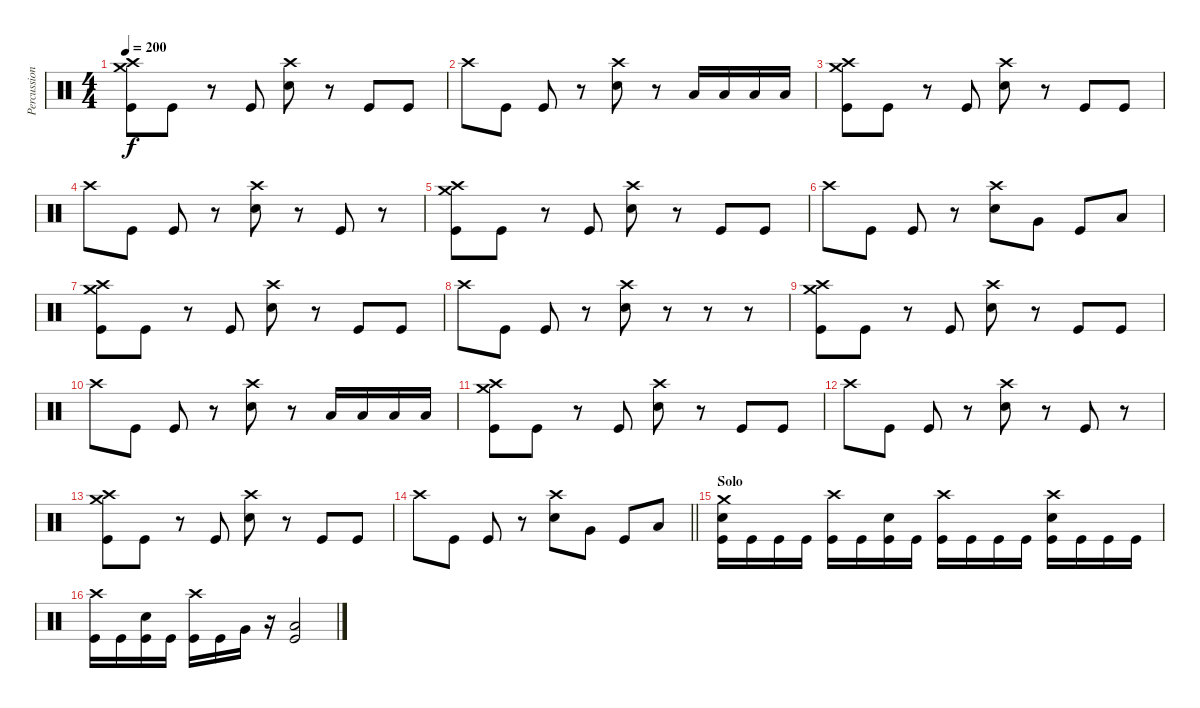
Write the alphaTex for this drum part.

\track ("Percussion" "Percussion") {instrument percussion}
\staff {score}
\articulation defaults
\ts (4 4)
\tempo 200
\clef neutral
\ks c
("Crash high (hit)" "Crash medium (hit)" "Kick (hit)").8{dy f} "Kick (hit)".8 r.8 "Kick (hit)".8 ("Crash high (hit)" "Snare (hit) 2").8 r.8 "Kick (hit)".8 "Kick (hit)".8 |
"Crash high (hit)".8 "Kick (hit)".8 "Kick (hit)".8 r.8 ("Crash high (hit)" "Snare (hit) 2").8 r.8 "Low Tom (hit)".16 "Low Tom (hit)".16 "Low Tom (hit)".16 "Low Tom (hit)".16 |
("Crash high (hit)" "Crash medium (hit)" "Kick (hit)").8 "Kick (hit)".8 r.8 "Kick (hit)".8 ("Crash high (hit)" "Snare (hit) 2").8 r.8 "Kick (hit)".8 "Kick (hit)".8 |
"Crash high (hit)".8 "Kick (hit)".8 "Kick (hit)".8 r.8 ("Crash high (hit)" "Snare (hit) 2").8 r.8 "Kick (hit)".8 r.8 |
("Crash high (hit)" "Crash medium (hit)" "Kick (hit)").8 "Kick (hit)".8 r.8 "Kick (hit)".8 ("Crash high (hit)" "Snare (hit) 2").8 r.8 "Kick (hit)".8 "Kick (hit)".8 |
"Crash high (hit)".8 "Kick (hit)".8 "Kick (hit)".8 r.8 ("Crash high (hit)" "Snare (hit) 2").8 "Very Low Tom (hit)".8 "Kick (hit)".8 "Low Floor Tom (hit)".8 |
("Crash high (hit)" "Crash medium (hit)" "Kick (hit)").8 "Kick (hit)".8 r.8 "Kick (hit)".8 ("Crash high (hit)" "Snare (hit) 2").8 r.8 "Kick (hit)".8 "Kick (hit)".8 |
"Crash high (hit)".8 "Kick (hit)".8 "Kick (hit)".8 r.8 ("Crash high (hit)" "Snare (hit) 2").8 r.8 r.8 r.8 |
("Crash high (hit)" "Crash medium (hit)" "Kick (hit)").8 "Kick (hit)".8 r.8 "Kick (hit)".8 ("Crash high (hit)" "Snare (hit) 2").8 r.8 "Kick (hit)".8 "Kick (hit)".8 |
"Crash high (hit)".8 "Kick (hit)".8 "Kick (hit)".8 r.8 ("Crash high (hit)" "Snare (hit) 2").8 r.8 "Low Tom (hit)".16 "Low Tom (hit)".16 "Low Tom (hit)".16 "Low Tom (hit)".16 |
("Crash high (hit)" "Crash medium (hit)" "Kick (hit)").8 "Kick (hit)".8 r.8 "Kick (hit)".8 ("Crash high (hit)" "Snare (hit) 2").8 r.8 "Kick (hit)".8 "Kick (hit)".8 |
"Crash high (hit)".8 "Kick (hit)".8 "Kick (hit)".8 r.8 ("Crash high (hit)" "Snare (hit) 2").8 r.8 "Kick (hit)".8 r.8 |
("Crash high (hit)" "Crash medium (hit)" "Kick (hit)").8 "Kick (hit)".8 r.8 "Kick (hit)".8 ("Crash high (hit)" "Snare (hit) 2").8 r.8 "Kick (hit)".8 "Kick (hit)".8 |
\barLineRight lightlight "Crash high (hit)".8 "Kick (hit)".8 "Kick (hit)".8
r.8 ("Crash high (hit)" "Snare (hit) 2").8 "Very Low Tom (hit)".8 "Kick (hit)".8 "Low Floor Tom (hit)".8 |
\section ("" "Solo")
("Crash medium (hit)" "Snare (hit) 2" "Kick (hit)").16 "Kick (hit)".16 "Kick (hit)".16 "Kick (hit)".16 ("Crash high (hit)" "Kick (hit)").16 "Kick (hit)".16 ("Snare (hit) 2" "Kick (hit)").16 "Kick (hit)".16 ("Crash high (hit)" "Kick (hit)").16 "Kick (hit)".16 "Kick (hit)".16 "Kick (hit)".16 ("Crash high (hit)" "Snare (hit) 2" "Kick (hit)").16 "Kick (hit)".16 "Kick (hit)".16 "Kick (hit)".16 |
("Crash high (hit)" "Kick (hit)").16 "Kick (hit)".16 ("Snare (hit) 2" "Kick (hit)").16 "Kick (hit)".16 ("Crash high (hit)" "Kick (hit)").16 "Kick (hit)".16 "Very Low Tom (hit)".16 r.16 ("Kick (hit)" "Low Floor Tom (hit)").2
